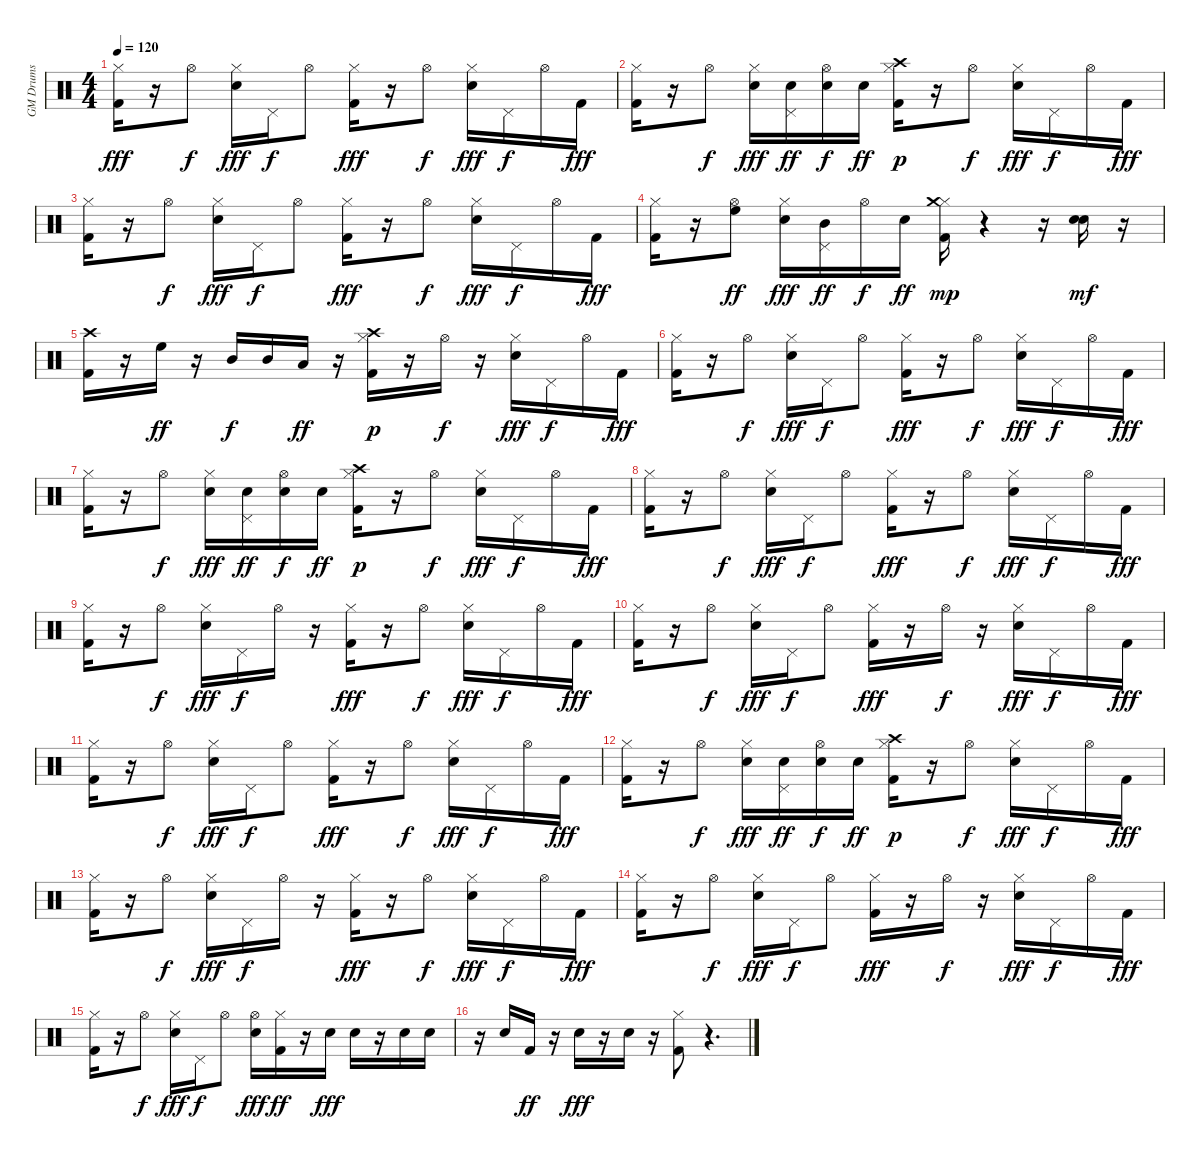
\track ("GM Drums" "GM Drums") {instrument percussion}
\staff {score}
\articulation defaults
\ts (4 4)
\tempo 120
\clef neutral
\ks c
("Kick (hit) 2" "Hi-Hat (closed)").16{dy fff} r.16 "Hi-Hat (open)".8{dy f} ("Electric Snare (hit)" "Hi-Hat (closed)").16{dy fff} "Pedal Hi-Hat (hit)".16{dy f} "Hi-Hat (open)".8 ("Kick (hit) 2" "Hi-Hat (closed)").16{dy fff} r.16 "Hi-Hat (open)".8{dy f} ("Electric Snare (hit)" "Hi-Hat (closed)").16{dy fff} "Pedal Hi-Hat (hit)".16{dy f} "Hi-Hat (open)".16 "Kick (hit) 2".16{dy fff} |
("Kick (hit) 2" "Hi-Hat (closed)").16 r.16 "Hi-Hat (open)".8{dy f} ("Electric Snare (hit)" "Hi-Hat (closed)").16{dy fff} ("Electric Snare (hit)" "Pedal Hi-Hat (hit)").16{dy ff} ("Electric Snare (hit)" "Hi-Hat (open)").16{dy f} "Electric Snare (hit)".16{dy ff} ("Kick (hit) 2" "Hi-Hat (closed)" "Crash high (hit)").16{dy p} r.16 "Hi-Hat (open)".8{dy f} ("Electric Snare (hit)" "Hi-Hat (closed)").16{dy fff} "Pedal Hi-Hat (hit)".16{dy f} "Hi-Hat (open)".16 "Kick (hit) 2".16{dy fff} |
("Kick (hit) 2" "Hi-Hat (closed)").16 r.16 "Hi-Hat (open)".8{dy f} ("Electric Snare (hit)" "Hi-Hat (closed)").16{dy fff} "Pedal Hi-Hat (hit)".16{dy f} "Hi-Hat (open)".8 ("Kick (hit) 2" "Hi-Hat (closed)").16{dy fff} r.16 "Hi-Hat (open)".8{dy f} ("Electric Snare (hit)" "Hi-Hat (closed)").16{dy fff} "Pedal Hi-Hat (hit)".16{dy f} "Hi-Hat (open)".16 "Kick (hit) 2".16{dy fff} |
("Kick (hit) 2" "Hi-Hat (closed)").16 r.16 ("Hi-Hat (open)" "High Floor Tom (hit)").8{dy ff} ("Electric Snare (hit)" "Hi-Hat (closed)").16{dy fff} ("Pedal Hi-Hat (hit)" "Mid Tom (hit)").16{dy ff} "Hi-Hat (open)".16{dy f} "Electric Snare (hit)".16{dy ff} ("Kick (hit) 2" "Hi-Hat (closed)" "Crash medium (hit)").16{dy mp} r.4 r.16 ("Electric Snare (hit)" "Electric Snare (hit)").16{dy mf} r.16 |
("Kick (hit) 2" "Crash high (hit)").16 r.16 "High Floor Tom (hit)".16{dy ff} r.16 "Mid Tom (hit)".16{dy f} "Mid Tom (hit)".16 "Low Tom (hit)".16{dy ff} r.16 ("Kick (hit) 2" "Hi-Hat (closed)" "Crash high (hit)").16{dy p} r.16 "Hi-Hat (open)".16{dy f} r.16 ("Electric Snare (hit)" "Hi-Hat (closed)").16{dy fff} "Pedal Hi-Hat (hit)".16{dy f} "Hi-Hat (open)".16 "Kick (hit) 2".16{dy fff} |
("Kick (hit) 2" "Hi-Hat (closed)").16 r.16 "Hi-Hat (open)".8{dy f} ("Electric Snare (hit)" "Hi-Hat (closed)").16{dy fff} "Pedal Hi-Hat (hit)".16{dy f} "Hi-Hat (open)".8 ("Kick (hit) 2" "Hi-Hat (closed)").16{dy fff} r.16 "Hi-Hat (open)".8{dy f} ("Electric Snare (hit)" "Hi-Hat (closed)").16{dy fff} "Pedal Hi-Hat (hit)".16{dy f} "Hi-Hat (open)".16 "Kick (hit) 2".16{dy fff} |
("Kick (hit) 2" "Hi-Hat (closed)").16 r.16 "Hi-Hat (open)".8{dy f} ("Electric Snare (hit)" "Hi-Hat (closed)").16{dy fff} ("Electric Snare (hit)" "Pedal Hi-Hat (hit)").16{dy ff} ("Electric Snare (hit)" "Hi-Hat (open)").16{dy f} "Electric Snare (hit)".16{dy ff} ("Kick (hit) 2" "Hi-Hat (closed)" "Crash high (hit)").16{dy p} r.16 "Hi-Hat (open)".8{dy f} ("Electric Snare (hit)" "Hi-Hat (closed)").16{dy fff} "Pedal Hi-Hat (hit)".16{dy f} "Hi-Hat (open)".16 "Kick (hit) 2".16{dy fff} |
("Kick (hit) 2" "Hi-Hat (closed)").16 r.16 "Hi-Hat (open)".8{dy f} ("Electric Snare (hit)" "Hi-Hat (closed)").16{dy fff} "Pedal Hi-Hat (hit)".16{dy f} "Hi-Hat (open)".8 ("Kick (hit) 2" "Hi-Hat (closed)").16{dy fff} r.16 "Hi-Hat (open)".8{dy f} ("Electric Snare (hit)" "Hi-Hat (closed)").16{dy fff} "Pedal Hi-Hat (hit)".16{dy f} "Hi-Hat (open)".16 "Kick (hit) 2".16{dy fff} |
("Kick (hit) 2" "Hi-Hat (closed)").16 r.16 "Hi-Hat (open)".8{dy f} ("Electric Snare (hit)" "Hi-Hat (closed)").16{dy fff} "Pedal Hi-Hat (hit)".16{dy f} "Hi-Hat (open)".16 r.16 ("Kick (hit) 2" "Hi-Hat (closed)").16{dy fff} r.16 "Hi-Hat (open)".8{dy f} ("Electric Snare (hit)" "Hi-Hat (closed)").16{dy fff} "Pedal Hi-Hat (hit)".16{dy f} "Hi-Hat (open)".16 "Kick (hit) 2".16{dy fff} |
("Kick (hit) 2" "Hi-Hat (closed)").16 r.16 "Hi-Hat (open)".8{dy f} ("Electric Snare (hit)" "Hi-Hat (closed)").16{dy fff} "Pedal Hi-Hat (hit)".16{dy f} "Hi-Hat (open)".8 ("Kick (hit) 2" "Hi-Hat (closed)").16{dy fff} r.16 "Hi-Hat (open)".16{dy f} r.16 ("Electric Snare (hit)" "Hi-Hat (closed)").16{dy fff} "Pedal Hi-Hat (hit)".16{dy f} "Hi-Hat (open)".16 "Kick (hit) 2".16{dy fff} |
("Kick (hit) 2" "Hi-Hat (closed)").16 r.16 "Hi-Hat (open)".8{dy f} ("Electric Snare (hit)" "Hi-Hat (closed)").16{dy fff} "Pedal Hi-Hat (hit)".16{dy f} "Hi-Hat (open)".8 ("Kick (hit) 2" "Hi-Hat (closed)").16{dy fff} r.16 "Hi-Hat (open)".8{dy f} ("Electric Snare (hit)" "Hi-Hat (closed)").16{dy fff} "Pedal Hi-Hat (hit)".16{dy f} "Hi-Hat (open)".16 "Kick (hit) 2".16{dy fff} |
("Kick (hit) 2" "Hi-Hat (closed)").16 r.16 "Hi-Hat (open)".8{dy f} ("Electric Snare (hit)" "Hi-Hat (closed)").16{dy fff} ("Electric Snare (hit)" "Pedal Hi-Hat (hit)").16{dy ff} ("Electric Snare (hit)" "Hi-Hat (open)").16{dy f} "Electric Snare (hit)".16{dy ff} ("Kick (hit) 2" "Hi-Hat (closed)" "Crash high (hit)").16{dy p} r.16 "Hi-Hat (open)".8{dy f} ("Electric Snare (hit)" "Hi-Hat (closed)").16{dy fff} "Pedal Hi-Hat (hit)".16{dy f} "Hi-Hat (open)".16 "Kick (hit) 2".16{dy fff} |
("Kick (hit) 2" "Hi-Hat (closed)").16 r.16 "Hi-Hat (open)".8{dy f} ("Electric Snare (hit)" "Hi-Hat (closed)").16{dy fff} "Pedal Hi-Hat (hit)".16{dy f} "Hi-Hat (open)".16 r.16 ("Kick (hit) 2" "Hi-Hat (closed)").16{dy fff} r.16 "Hi-Hat (open)".8{dy f} ("Electric Snare (hit)" "Hi-Hat (closed)").16{dy fff} "Pedal Hi-Hat (hit)".16{dy f} "Hi-Hat (open)".16 "Kick (hit) 2".16{dy fff} |
("Kick (hit) 2" "Hi-Hat (closed)").16 r.16 "Hi-Hat (open)".8{dy f} ("Electric Snare (hit)" "Hi-Hat (closed)").16{dy fff} "Pedal Hi-Hat (hit)".16{dy f} "Hi-Hat (open)".8 ("Kick (hit) 2" "Hi-Hat (closed)").16{dy fff} r.16 "Hi-Hat (open)".16{dy f} r.16 ("Electric Snare (hit)" "Hi-Hat (closed)").16{dy fff} "Pedal Hi-Hat (hit)".16{dy f} "Hi-Hat (open)".16 "Kick (hit) 2".16{dy fff} |
("Kick (hit) 2" "Hi-Hat (closed)").16 r.16 "Hi-Hat (open)".8{dy f} ("Electric Snare (hit)" "Hi-Hat (closed)").16{dy fff} "Pedal Hi-Hat (hit)".16{dy f} "Hi-Hat (open)".8 ("Electric Snare (hit)" "Hi-Hat (open)").16{dy fff} ("Kick (hit) 2" "Hi-Hat (closed)").16{dy ff} r.16 "Electric Snare (hit)".16{dy fff} "Electric Snare (hit)".16 r.16 "Electric Snare (hit)".16 "Electric Snare (hit)".16 |
r.16 "Electric Snare (hit)".16 "Kick (hit) 2".16{dy ff} r.16 "Electric Snare (hit)".16{dy fff} r.16 "Electric Snare (hit)".16 r.16 ("Kick (hit) 2" "Hi-Hat (closed)").8 r.4{d}
